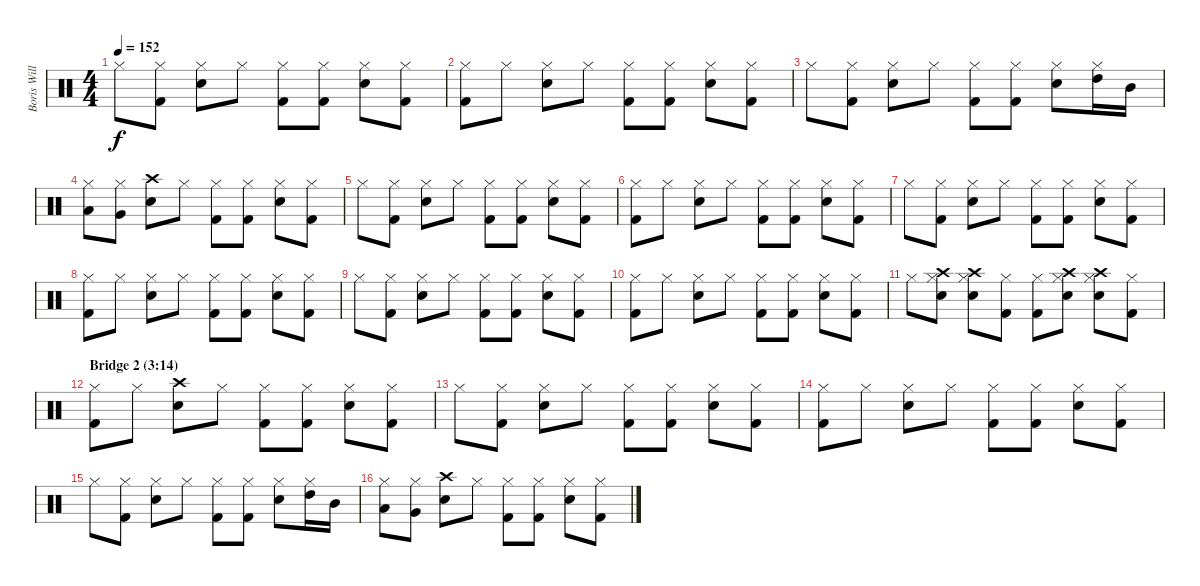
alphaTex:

\track ("Boris Williams (drums)" "Boris Will") {instrument percussion}
\staff {score}
\articulation defaults
\ts (4 4)
\tempo 152
\clef neutral
\ks c "Hi-Hat (closed)".8{dy f}
("Kick (hit) 2" "Hi-Hat (closed)").8 ("Snare (hit) 2" "Hi-Hat (closed)").8 "Hi-Hat (closed)".8 ("Kick (hit) 2" "Hi-Hat (closed)").8 ("Kick (hit) 2" "Hi-Hat (closed)").8 ("Snare (hit) 2" "Hi-Hat (closed)").8 ("Kick (hit) 2" "Hi-Hat (closed)").8 |
("Kick (hit) 2" "Hi-Hat (closed)").8 "Hi-Hat (closed)".8 ("Snare (hit) 2" "Hi-Hat (closed)").8 "Hi-Hat (closed)".8 ("Kick (hit) 2" "Hi-Hat (closed)").8 ("Kick (hit) 2" "Hi-Hat (closed)").8 ("Snare (hit) 2" "Hi-Hat (closed)").8 ("Kick (hit) 2" "Hi-Hat (closed)").8 |
"Hi-Hat (closed)".8 ("Kick (hit) 2" "Hi-Hat (closed)").8 ("Snare (hit) 2" "Hi-Hat (closed)").8 "Hi-Hat (closed)".8 ("Kick (hit) 2" "Hi-Hat (closed)").8 ("Kick (hit) 2" "Hi-Hat (closed)").8 ("Snare (hit) 2" "Hi-Hat (closed)").8 ("High Tom (hit)" "Hi-Hat (closed)").16 "Mid Tom (hit)".16 |
("Low Tom (hit)" "Hi-Hat (closed)").8 ("Very Low Tom (hit)" "Hi-Hat (closed)").8 ("Snare (hit) 2" "Crash high (hit)").8 "Hi-Hat (closed)".8 ("Kick (hit) 2" "Hi-Hat (closed)").8 ("Kick (hit) 2" "Hi-Hat (closed)").8 ("Snare (hit) 2" "Hi-Hat (closed)").8 ("Kick (hit) 2" "Hi-Hat (closed)").8 |
"Hi-Hat (closed)".8 ("Kick (hit) 2" "Hi-Hat (closed)").8 ("Snare (hit) 2" "Hi-Hat (closed)").8 "Hi-Hat (closed)".8 ("Kick (hit) 2" "Hi-Hat (closed)").8 ("Kick (hit) 2" "Hi-Hat (closed)").8 ("Snare (hit) 2" "Hi-Hat (closed)").8 ("Kick (hit) 2" "Hi-Hat (closed)").8 |
("Kick (hit) 2" "Hi-Hat (closed)").8 "Hi-Hat (closed)".8 ("Snare (hit) 2" "Hi-Hat (closed)").8 "Hi-Hat (closed)".8 ("Kick (hit) 2" "Hi-Hat (closed)").8 ("Kick (hit) 2" "Hi-Hat (closed)").8 ("Snare (hit) 2" "Hi-Hat (closed)").8 ("Kick (hit) 2" "Hi-Hat (closed)").8 |
"Hi-Hat (closed)".8 ("Kick (hit) 2" "Hi-Hat (closed)").8 ("Snare (hit) 2" "Hi-Hat (closed)").8 "Hi-Hat (closed)".8 ("Kick (hit) 2" "Hi-Hat (closed)").8 ("Kick (hit) 2" "Hi-Hat (closed)").8 ("Snare (hit) 2" "Hi-Hat (closed)").8 ("Kick (hit) 2" "Hi-Hat (closed)").8 |
("Kick (hit) 2" "Hi-Hat (closed)").8 "Hi-Hat (closed)".8 ("Snare (hit) 2" "Hi-Hat (closed)").8 "Hi-Hat (closed)".8 ("Kick (hit) 2" "Hi-Hat (closed)").8 ("Kick (hit) 2" "Hi-Hat (closed)").8 ("Snare (hit) 2" "Hi-Hat (closed)").8 ("Kick (hit) 2" "Hi-Hat (closed)").8 |
"Hi-Hat (closed)".8 ("Kick (hit) 2" "Hi-Hat (closed)").8 ("Snare (hit) 2" "Hi-Hat (closed)").8 "Hi-Hat (closed)".8 ("Kick (hit) 2" "Hi-Hat (closed)").8 ("Kick (hit) 2" "Hi-Hat (closed)").8 ("Snare (hit) 2" "Hi-Hat (closed)").8 ("Kick (hit) 2" "Hi-Hat (closed)").8 |
("Kick (hit) 2" "Hi-Hat (closed)").8 "Hi-Hat (closed)".8 ("Snare (hit) 2" "Hi-Hat (closed)").8 "Hi-Hat (closed)".8 ("Kick (hit) 2" "Hi-Hat (closed)").8 ("Kick (hit) 2" "Hi-Hat (closed)").8 ("Snare (hit) 2" "Hi-Hat (closed)").8 ("Kick (hit) 2" "Hi-Hat (closed)").8 |
"Hi-Hat (closed)".8 ("Crash high (hit)" "Snare (hit) 2" "Hi-Hat (closed)").8 ("Crash high (hit)" "Snare (hit) 2" "Hi-Hat (closed)").8 ("Kick (hit) 2" "Hi-Hat (closed)").8 ("Kick (hit) 2" "Hi-Hat (closed)").8 ("Crash high (hit)" "Snare (hit) 2" "Hi-Hat (closed)").8 ("Crash high (hit)" "Snare (hit) 2" "Hi-Hat (closed)").8 ("Kick (hit) 2" "Hi-Hat (closed)").8 |
\section ("" "Bridge 2 (3:14)")
("Kick (hit) 2" "Hi-Hat (closed)").8 "Hi-Hat (closed)".8 ("Snare (hit) 2" "Crash high (hit)").8 "Hi-Hat (closed)".8 ("Kick (hit) 2" "Hi-Hat (closed)").8 ("Kick (hit) 2" "Hi-Hat (closed)").8 ("Snare (hit) 2" "Hi-Hat (closed)").8 ("Kick (hit) 2" "Hi-Hat (closed)").8 |
"Hi-Hat (closed)".8 ("Kick (hit) 2" "Hi-Hat (closed)").8 ("Snare (hit) 2" "Hi-Hat (closed)").8 "Hi-Hat (closed)".8 ("Kick (hit) 2" "Hi-Hat (closed)").8 ("Kick (hit) 2" "Hi-Hat (closed)").8 ("Snare (hit) 2" "Hi-Hat (closed)").8 ("Kick (hit) 2" "Hi-Hat (closed)").8 |
("Kick (hit) 2" "Hi-Hat (closed)").8 "Hi-Hat (closed)".8 ("Snare (hit) 2" "Hi-Hat (closed)").8 "Hi-Hat (closed)".8 ("Kick (hit) 2" "Hi-Hat (closed)").8 ("Kick (hit) 2" "Hi-Hat (closed)").8 ("Snare (hit) 2" "Hi-Hat (closed)").8 ("Kick (hit) 2" "Hi-Hat (closed)").8 |
"Hi-Hat (closed)".8 ("Kick (hit) 2" "Hi-Hat (closed)").8 ("Snare (hit) 2" "Hi-Hat (closed)").8 "Hi-Hat (closed)".8 ("Kick (hit) 2" "Hi-Hat (closed)").8 ("Kick (hit) 2" "Hi-Hat (closed)").8 ("Snare (hit) 2" "Hi-Hat (closed)").8 ("High Tom (hit)" "Hi-Hat (closed)").16 "Mid Tom (hit)".16 |
("Low Tom (hit)" "Hi-Hat (closed)").8 ("Very Low Tom (hit)" "Hi-Hat (closed)").8 ("Snare (hit) 2" "Crash high (hit)").8 "Hi-Hat (closed)".8 ("Kick (hit) 2" "Hi-Hat (closed)").8 ("Kick (hit) 2" "Hi-Hat (closed)").8 ("Snare (hit) 2" "Hi-Hat (closed)").8 ("Kick (hit) 2" "Hi-Hat (closed)").8
